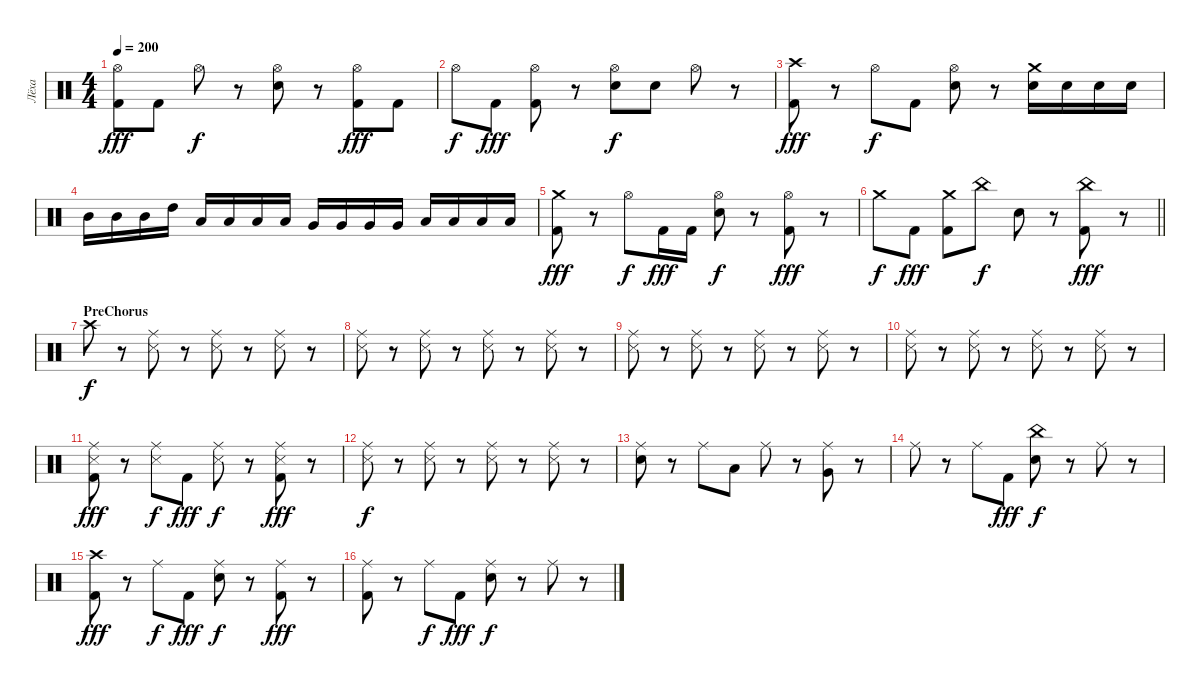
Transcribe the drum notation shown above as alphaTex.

\track ("Лёха" "Лёха") {instrument percussion}
\staff {score}
\articulation defaults
\ts (4 4)
\tempo 200
\clef neutral
\ks c
("Hi-Hat (open)" "Kick (hit) 2").8{dy fff} "Kick (hit) 2".8 "Hi-Hat (open)".8{dy f} r.8 ("Hi-Hat (open)" "Electric Snare (hit)").8 r.8 ("Hi-Hat (open)" "Kick (hit) 2").8{dy fff} "Kick (hit) 2".8 |
"Hi-Hat (open)".8{dy f} "Kick (hit) 2".8{dy fff} ("Hi-Hat (open)" "Kick (hit) 2").8 r.8 ("Hi-Hat (open)" "Electric Snare (hit)").8{dy f} "Electric Snare (hit)".8 "Hi-Hat (open)".8 r.8 |
("Crash high (hit)" "Kick (hit) 2").8{dy fff} r.8 "Hi-Hat (open)".8{dy f} "Kick (hit) 2".8 ("Hi-Hat (open)" "Electric Snare (hit)").8 r.8 ("Crash medium (hit)" "Electric Snare (hit)").16 "Electric Snare (hit)".16 "Electric Snare (hit)".16 "Electric Snare (hit)".16 |
"Mid Tom (hit)".16 "Mid Tom (hit)".16 "Mid Tom (hit)".16 "High Tom (hit)".16 "Low Tom (hit)".16 "Low Tom (hit)".16 "Low Tom (hit)".16 "Low Tom (hit)".16 "Very Low Tom (hit)".16 "Very Low Tom (hit)".16 "Very Low Tom (hit)".16 "Very Low Tom (hit)".16 "Low Floor Tom (hit)".16 "Low Floor Tom (hit)".16 "Low Floor Tom (hit)".16 "Low Floor Tom (hit)".16 |
("Crash medium (hit)" "Kick (hit) 2").8{dy fff} r.8 "Hi-Hat (open)".8{dy f} "Kick (hit) 2".16{dy fff} "Kick (hit) 2".16 ("Hi-Hat (open)" "Electric Snare (hit)").8{dy f} r.8 ("Hi-Hat (open)" "Kick (hit) 2").8{dy fff} r.8 |
\barLineRight lightlight "Crash medium (hit)".8{dy f} "Kick (hit) 2".8{dy fff}
("Crash medium (hit)" "Kick (hit) 2").8 "China (hit)".8{dy f} "Electric Snare (hit)".8 r.8 ("China (hit)" "Kick (hit) 2").8{dy fff} r.8 |
\section ("" "PreChorus")
"Crash high (hit)".8{dy f} r.8 ("Metronome (hit)" "Ride (middle)").8 r.8 ("Metronome (hit)" "Ride (middle)").8 r.8 ("Metronome (hit)" "Ride (middle)").8 r.8 |
("Metronome (hit)" "Ride (middle)").8 r.8 ("Metronome (hit)" "Ride (middle)").8 r.8 ("Metronome (hit)" "Ride (middle)").8 r.8 ("Metronome (hit)" "Ride (middle)").8 r.8 |
("Metronome (hit)" "Ride (middle)").8 r.8 ("Metronome (hit)" "Ride (middle)").8 r.8 ("Metronome (hit)" "Ride (middle)").8 r.8 ("Metronome (hit)" "Ride (middle)").8 r.8 |
("Metronome (hit)" "Ride (middle)").8 r.8 ("Metronome (hit)" "Ride (middle)").8 r.8 ("Metronome (hit)" "Ride (middle)").8 r.8 ("Metronome (hit)" "Ride (middle)").8 r.8 |
("Metronome (hit)" "Ride (middle)" "Kick (hit) 2").8{dy fff} r.8 ("Metronome (hit)" "Ride (middle)").8{dy f} "Kick (hit) 2".8{dy fff} ("Metronome (hit)" "Ride (middle)").8{dy f} r.8 ("Metronome (hit)" "Ride (middle)" "Kick (hit) 2").8{dy fff} r.8 |
("Metronome (hit)" "Ride (middle)").8{dy f} r.8 ("Metronome (hit)" "Ride (middle)").8 r.8 ("Metronome (hit)" "Ride (middle)").8 r.8 ("Metronome (hit)" "Ride (middle)").8 r.8 |
("Ride (middle)" "Electric Snare (hit)").8 r.8 "Ride (middle)".8 "Low Tom (hit)".8 "Ride (middle)".8 r.8 ("Ride (middle)" "Very Low Tom (hit)").8 r.8 |
"Ride (middle)".8 r.8 "Ride (middle)".8 "Kick (hit) 2".8{dy fff} ("China (hit)" "Electric Snare (hit)").8{dy f} r.8 "Ride (middle)".8 r.8 |
("Crash high (hit)" "Kick (hit) 2").8{dy fff} r.8 "Ride (middle)".8{dy f} "Kick (hit) 2".8{dy fff} ("Ride (middle)" "Electric Snare (hit)").8{dy f} r.8 ("Ride (middle)" "Kick (hit) 2").8{dy fff} r.8 |
("Ride (middle)" "Kick (hit) 2").8 r.8 "Ride (middle)".8{dy f} "Kick (hit) 2".8{dy fff} ("Ride (middle)" "Electric Snare (hit)").8{dy f} r.8 "Ride (middle)".8 r.8
